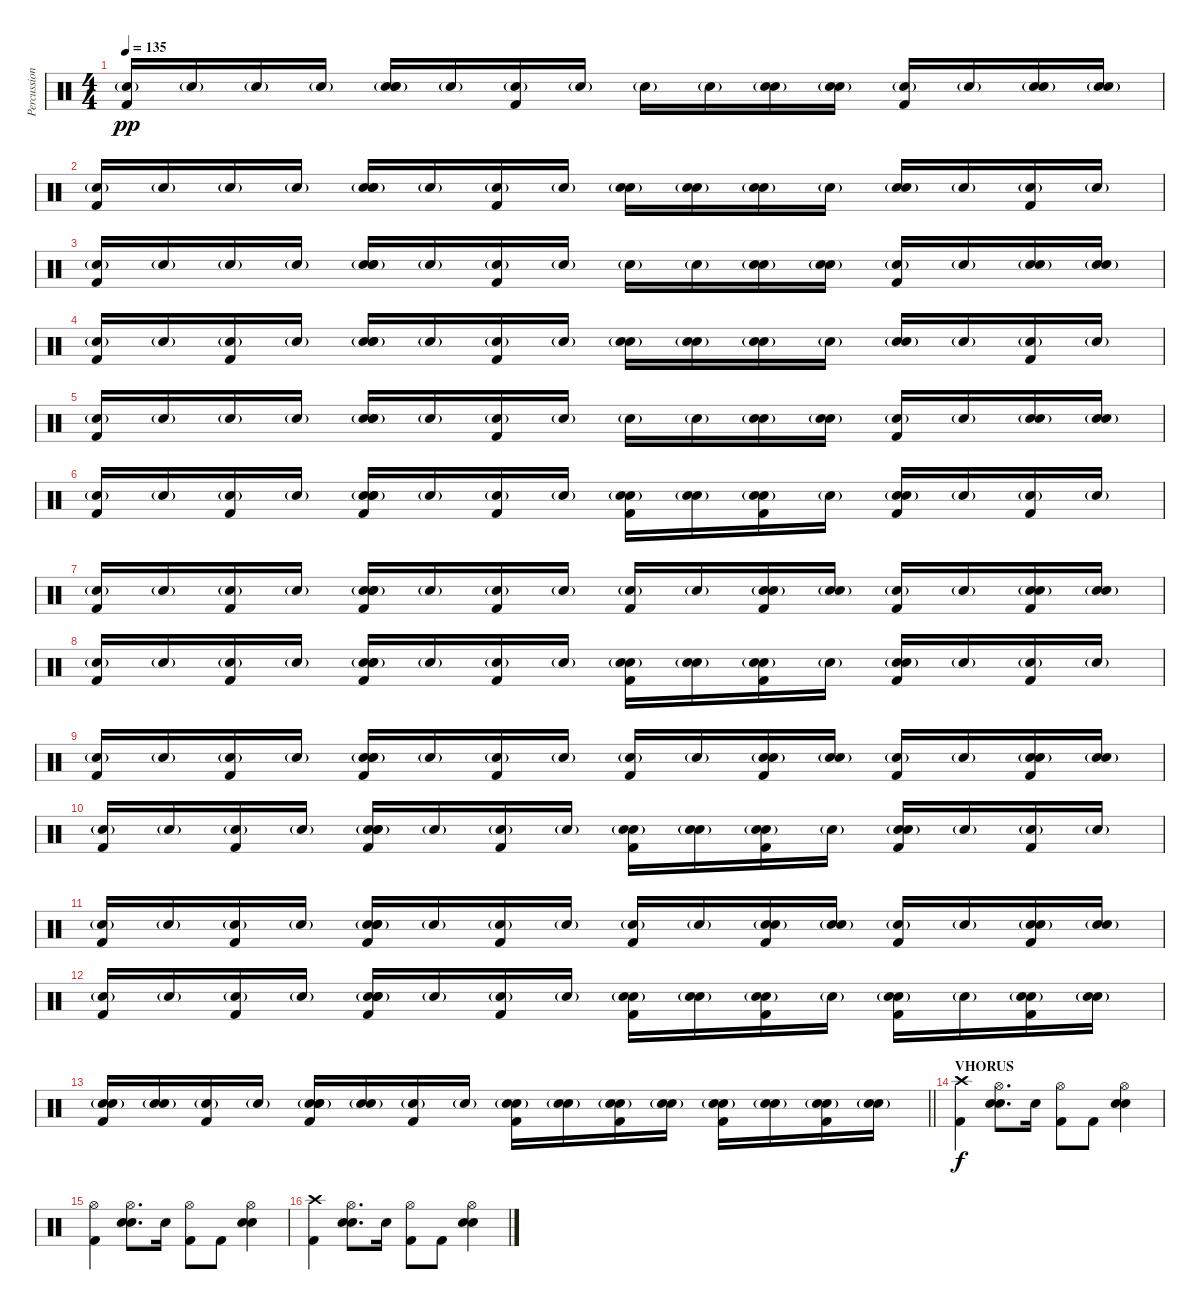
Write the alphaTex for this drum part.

\track ("Percussion" "Percussion") {instrument percussion}
\staff {score}
\articulation defaults
\ts (4 4)
\tempo 135
\clef neutral
\ks c
("Snare (hit) 2"{g} "Kick (hit) 2").16{dy pp} "Snare (hit) 2"{g}.16 "Snare (hit) 2"{g}.16 "Snare (hit) 2"{g}.16 ("Snare (hit) 2" "Electric Snare (hit)" "Snare (hit) 2"{g}).16 "Snare (hit) 2"{g}.16 ("Snare (hit) 2"{g} "Kick (hit) 2").16 "Snare (hit) 2"{g}.16 "Snare (hit) 2"{g}.16 "Snare (hit) 2"{g}.16 ("Electric Snare (hit)" "Snare (hit) 2"{g}).16 ("Electric Snare (hit)" "Snare (hit) 2"{g}).16 ("Snare (hit) 2"{g} "Kick (hit) 2").16 "Snare (hit) 2"{g}.16 ("Electric Snare (hit)" "Snare (hit) 2"{g}).16 ("Electric Snare (hit)" "Snare (hit) 2"{g}).16 |
("Snare (hit) 2"{g} "Kick (hit) 2").16 "Snare (hit) 2"{g}.16 "Snare (hit) 2"{g}.16 "Snare (hit) 2"{g}.16 ("Snare (hit) 2" "Electric Snare (hit)" "Snare (hit) 2"{g}).16 "Snare (hit) 2"{g}.16 ("Snare (hit) 2"{g} "Kick (hit) 2").16 "Snare (hit) 2"{g}.16 ("Electric Snare (hit)" "Snare (hit) 2"{g}).16 ("Electric Snare (hit)" "Snare (hit) 2"{g}).16 ("Electric Snare (hit)" "Snare (hit) 2"{g}).16 "Snare (hit) 2"{g}.16 ("Electric Snare (hit)" "Snare (hit) 2"{g}).16 "Snare (hit) 2"{g}.16 ("Snare (hit) 2"{g} "Kick (hit) 2").16 "Snare (hit) 2"{g}.16 |
("Snare (hit) 2"{g} "Kick (hit) 2").16 "Snare (hit) 2"{g}.16 "Snare (hit) 2"{g}.16 "Snare (hit) 2"{g}.16 ("Snare (hit) 2" "Electric Snare (hit)" "Snare (hit) 2"{g}).16 "Snare (hit) 2"{g}.16 ("Snare (hit) 2"{g} "Kick (hit) 2").16 "Snare (hit) 2"{g}.16 "Snare (hit) 2"{g}.16 "Snare (hit) 2"{g}.16 ("Electric Snare (hit)" "Snare (hit) 2"{g}).16 ("Electric Snare (hit)" "Snare (hit) 2"{g}).16 ("Snare (hit) 2"{g} "Kick (hit) 2").16 "Snare (hit) 2"{g}.16 ("Electric Snare (hit)" "Snare (hit) 2"{g}).16 ("Electric Snare (hit)" "Snare (hit) 2"{g}).16 |
("Snare (hit) 2"{g} "Kick (hit) 2").16 "Snare (hit) 2"{g}.16 ("Snare (hit) 2"{g} "Kick (hit) 2").16 "Snare (hit) 2"{g}.16 ("Snare (hit) 2" "Electric Snare (hit)" "Snare (hit) 2"{g}).16 "Snare (hit) 2"{g}.16 ("Snare (hit) 2"{g} "Kick (hit) 2").16 "Snare (hit) 2"{g}.16 ("Electric Snare (hit)" "Snare (hit) 2"{g}).16 ("Electric Snare (hit)" "Snare (hit) 2"{g}).16 ("Electric Snare (hit)" "Snare (hit) 2"{g}).16 "Snare (hit) 2"{g}.16 ("Electric Snare (hit)" "Snare (hit) 2"{g}).16 "Snare (hit) 2"{g}.16 ("Snare (hit) 2"{g} "Kick (hit) 2").16 "Snare (hit) 2"{g}.16 |
("Snare (hit) 2"{g} "Kick (hit) 2").16 "Snare (hit) 2"{g}.16 "Snare (hit) 2"{g}.16 "Snare (hit) 2"{g}.16 ("Snare (hit) 2" "Electric Snare (hit)" "Snare (hit) 2"{g}).16 "Snare (hit) 2"{g}.16 ("Snare (hit) 2"{g} "Kick (hit) 2").16 "Snare (hit) 2"{g}.16 "Snare (hit) 2"{g}.16 "Snare (hit) 2"{g}.16 ("Electric Snare (hit)" "Snare (hit) 2"{g}).16 ("Electric Snare (hit)" "Snare (hit) 2"{g}).16 ("Snare (hit) 2"{g} "Kick (hit) 2").16 "Snare (hit) 2"{g}.16 ("Electric Snare (hit)" "Snare (hit) 2"{g}).16 ("Electric Snare (hit)" "Snare (hit) 2"{g}).16 |
("Snare (hit) 2"{g} "Kick (hit) 2").16 "Snare (hit) 2"{g}.16 ("Snare (hit) 2"{g} "Kick (hit) 2").16 "Snare (hit) 2"{g}.16 ("Snare (hit) 2" "Electric Snare (hit)" "Snare (hit) 2"{g} "Kick (hit) 2").16 "Snare (hit) 2"{g}.16 ("Snare (hit) 2"{g} "Kick (hit) 2").16 "Snare (hit) 2"{g}.16 ("Electric Snare (hit)" "Snare (hit) 2"{g} "Kick (hit) 2").16 ("Electric Snare (hit)" "Snare (hit) 2"{g}).16 ("Electric Snare (hit)" "Snare (hit) 2"{g} "Kick (hit) 2").16 "Snare (hit) 2"{g}.16 ("Electric Snare (hit)" "Snare (hit) 2"{g} "Kick (hit) 2").16 "Snare (hit) 2"{g}.16 ("Snare (hit) 2"{g} "Kick (hit) 2").16 "Snare (hit) 2"{g}.16 |
("Snare (hit) 2"{g} "Kick (hit) 2").16 "Snare (hit) 2"{g}.16 ("Snare (hit) 2"{g} "Kick (hit) 2").16 "Snare (hit) 2"{g}.16 ("Snare (hit) 2" "Electric Snare (hit)" "Snare (hit) 2"{g} "Kick (hit) 2").16 "Snare (hit) 2"{g}.16 ("Snare (hit) 2"{g} "Kick (hit) 2").16 "Snare (hit) 2"{g}.16 ("Snare (hit) 2"{g} "Kick (hit) 2").16 "Snare (hit) 2"{g}.16 ("Electric Snare (hit)" "Snare (hit) 2"{g} "Kick (hit) 2").16 ("Electric Snare (hit)" "Snare (hit) 2"{g}).16 ("Snare (hit) 2"{g} "Kick (hit) 2").16 "Snare (hit) 2"{g}.16 ("Electric Snare (hit)" "Snare (hit) 2"{g} "Kick (hit) 2").16 ("Electric Snare (hit)" "Snare (hit) 2"{g}).16 |
("Snare (hit) 2"{g} "Kick (hit) 2").16 "Snare (hit) 2"{g}.16 ("Snare (hit) 2"{g} "Kick (hit) 2").16 "Snare (hit) 2"{g}.16 ("Snare (hit) 2" "Electric Snare (hit)" "Snare (hit) 2"{g} "Kick (hit) 2").16 "Snare (hit) 2"{g}.16 ("Snare (hit) 2"{g} "Kick (hit) 2").16 "Snare (hit) 2"{g}.16 ("Electric Snare (hit)" "Snare (hit) 2"{g} "Kick (hit) 2").16 ("Electric Snare (hit)" "Snare (hit) 2"{g}).16 ("Electric Snare (hit)" "Snare (hit) 2"{g} "Kick (hit) 2").16 "Snare (hit) 2"{g}.16 ("Electric Snare (hit)" "Snare (hit) 2"{g} "Kick (hit) 2").16 "Snare (hit) 2"{g}.16 ("Snare (hit) 2"{g} "Kick (hit) 2").16 "Snare (hit) 2"{g}.16 |
("Snare (hit) 2"{g} "Kick (hit) 2").16 "Snare (hit) 2"{g}.16 ("Snare (hit) 2"{g} "Kick (hit) 2").16 "Snare (hit) 2"{g}.16 ("Snare (hit) 2" "Electric Snare (hit)" "Snare (hit) 2"{g} "Kick (hit) 2").16 "Snare (hit) 2"{g}.16 ("Snare (hit) 2"{g} "Kick (hit) 2").16 "Snare (hit) 2"{g}.16 ("Snare (hit) 2"{g} "Kick (hit) 2").16 "Snare (hit) 2"{g}.16 ("Electric Snare (hit)" "Snare (hit) 2"{g} "Kick (hit) 2").16 ("Electric Snare (hit)" "Snare (hit) 2"{g}).16 ("Snare (hit) 2"{g} "Kick (hit) 2").16 "Snare (hit) 2"{g}.16 ("Electric Snare (hit)" "Snare (hit) 2"{g} "Kick (hit) 2").16 ("Electric Snare (hit)" "Snare (hit) 2"{g}).16 |
("Snare (hit) 2"{g} "Kick (hit) 2").16 "Snare (hit) 2"{g}.16 ("Snare (hit) 2"{g} "Kick (hit) 2").16 "Snare (hit) 2"{g}.16 ("Snare (hit) 2" "Electric Snare (hit)" "Snare (hit) 2"{g} "Kick (hit) 2").16 "Snare (hit) 2"{g}.16 ("Snare (hit) 2"{g} "Kick (hit) 2").16 "Snare (hit) 2"{g}.16 ("Electric Snare (hit)" "Snare (hit) 2"{g} "Kick (hit) 2").16 ("Electric Snare (hit)" "Snare (hit) 2"{g}).16 ("Electric Snare (hit)" "Snare (hit) 2"{g} "Kick (hit) 2").16 "Snare (hit) 2"{g}.16 ("Electric Snare (hit)" "Snare (hit) 2"{g} "Kick (hit) 2").16 "Snare (hit) 2"{g}.16 ("Snare (hit) 2"{g} "Kick (hit) 2").16 "Snare (hit) 2"{g}.16 |
("Snare (hit) 2"{g} "Kick (hit) 2").16 "Snare (hit) 2"{g}.16 ("Snare (hit) 2"{g} "Kick (hit) 2").16 "Snare (hit) 2"{g}.16 ("Snare (hit) 2" "Electric Snare (hit)" "Snare (hit) 2"{g} "Kick (hit) 2").16 "Snare (hit) 2"{g}.16 ("Snare (hit) 2"{g} "Kick (hit) 2").16 "Snare (hit) 2"{g}.16 ("Snare (hit) 2"{g} "Kick (hit) 2").16 "Snare (hit) 2"{g}.16 ("Electric Snare (hit)" "Snare (hit) 2"{g} "Kick (hit) 2").16 ("Electric Snare (hit)" "Snare (hit) 2"{g}).16 ("Snare (hit) 2"{g} "Kick (hit) 2").16 "Snare (hit) 2"{g}.16 ("Electric Snare (hit)" "Snare (hit) 2"{g} "Kick (hit) 2").16 ("Electric Snare (hit)" "Snare (hit) 2"{g}).16 |
("Snare (hit) 2"{g} "Kick (hit) 2").16 "Snare (hit) 2"{g}.16 ("Snare (hit) 2"{g} "Kick (hit) 2").16 "Snare (hit) 2"{g}.16 ("Snare (hit) 2" "Electric Snare (hit)" "Snare (hit) 2"{g} "Kick (hit) 2").16 "Snare (hit) 2"{g}.16 ("Snare (hit) 2"{g} "Kick (hit) 2").16 "Snare (hit) 2"{g}.16 ("Electric Snare (hit)" "Snare (hit) 2"{g} "Kick (hit) 2").16 ("Electric Snare (hit)" "Snare (hit) 2"{g}).16 ("Electric Snare (hit)" "Snare (hit) 2"{g} "Kick (hit) 2").16 "Snare (hit) 2"{g}.16 ("Electric Snare (hit)" "Snare (hit) 2"{g} "Kick (hit) 2").16 "Snare (hit) 2"{g}.16 ("Electric Snare (hit)" "Snare (hit) 2"{g} "Kick (hit) 2").16 ("Electric Snare (hit)" "Snare (hit) 2"{g}).16 |
\barLineRight lightlight
("Electric Snare (hit)" "Snare (hit) 2"{g} "Kick (hit) 2").16 ("Electric Snare (hit)" "Snare (hit) 2"{g}).16 ("Snare (hit) 2"{g} "Kick (hit) 2").16 "Snare (hit) 2"{g}.16 ("Snare (hit) 2" "Electric Snare (hit)" "Snare (hit) 2"{g} "Kick (hit) 2").16 ("Electric Snare (hit)" "Snare (hit) 2"{g}).16 ("Snare (hit) 2"{g} "Kick (hit) 2").16 "Snare (hit) 2"{g}.16 ("Electric Snare (hit)" "Snare (hit) 2"{g} "Kick (hit) 2").16 ("Electric Snare (hit)" "Snare (hit) 2"{g}).16 ("Electric Snare (hit)" "Snare (hit) 2"{g} "Kick (hit) 2").16 ("Electric Snare (hit)" "Snare (hit) 2"{g}).16 ("Electric Snare (hit)" "Snare (hit) 2"{g} "Kick (hit) 2").16 ("Electric Snare (hit)" "Snare (hit) 2"{g}).16 ("Electric Snare (hit)" "Snare (hit) 2"{g} "Kick (hit) 2").16 ("Electric Snare (hit)" "Snare (hit) 2"{g}).16 |
\section ("" "VHORUS")
("Crash high (hit)" "Kick (hit) 2").4{dy f} ("Hi-Hat (open)" "Snare (hit) 2" "Electric Snare (hit)").8{d} "Electric Snare (hit)".16 ("Hi-Hat (open)" "Kick (hit) 2").8 "Kick (hit) 2".8 ("Hi-Hat (open)" "Snare (hit) 2" "Electric Snare (hit)").4 |
("Hi-Hat (open)" "Kick (hit) 2").4 ("Hi-Hat (open)" "Snare (hit) 2" "Electric Snare (hit)").8{d} "Electric Snare (hit)".16 ("Hi-Hat (open)" "Kick (hit) 2").8 "Kick (hit) 2".8 ("Hi-Hat (open)" "Snare (hit) 2" "Electric Snare (hit)").4 |
("Crash high (hit)" "Kick (hit) 2").4 ("Hi-Hat (open)" "Snare (hit) 2" "Electric Snare (hit)").8{d} "Electric Snare (hit)".16 ("Hi-Hat (open)" "Kick (hit) 2").8 "Kick (hit) 2".8 ("Hi-Hat (open)" "Snare (hit) 2" "Electric Snare (hit)").4
